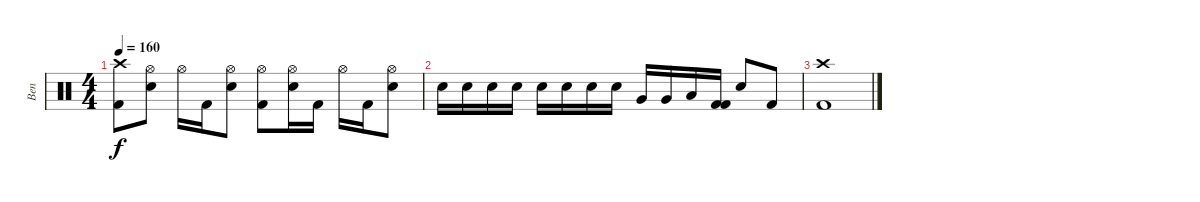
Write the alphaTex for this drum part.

\track ("Ben" "Ben") {instrument percussion}
\staff {score}
\articulation defaults
\ts (4 4)
\tempo 160
\clef neutral
\ks c
("Crash high (hit)" "Kick (hit) 2").8{dy f} ("Hi-Hat (open)" "Snare (hit) 2").8 "Hi-Hat (open)".16 "Kick (hit) 2".16 ("Hi-Hat (open)" "Snare (hit) 2").8 ("Hi-Hat (open)" "Kick (hit) 2").8 ("Hi-Hat (open)" "Snare (hit) 2").16 "Kick (hit) 2".16 "Hi-Hat (open)".16 "Kick (hit) 2".16 ("Hi-Hat (open)" "Snare (hit) 2").8 |
"Snare (hit) 2".16 "Snare (hit) 2".16 "Snare (hit) 2".16 "Snare (hit) 2".16 "Snare (hit) 2".16 "Snare (hit) 2".16 "Snare (hit) 2".16 "Snare (hit) 2".16 "Very Low Tom (hit)".16 "Very Low Tom (hit)".16 "Low Floor Tom (hit)".16 ("Kick (hit) 2" "Kick (hit) 2").16 "Snare (hit) 2".8 "Kick (hit) 2".8 |
("Crash high (hit)" "Kick (hit) 2").1
